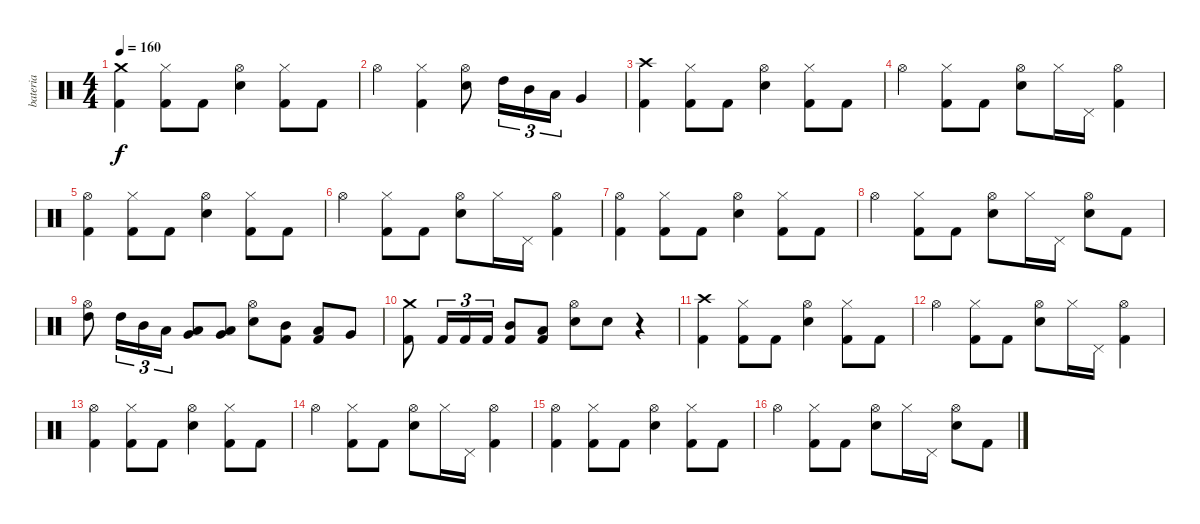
\track ("bateria" "bateria") {instrument percussion}
\staff {score}
\articulation defaults
\ts (4 4)
\tempo 160
\clef neutral
\ks c
("Crash medium (hit)" "Kick (hit) 2").4{dy f} ("Hi-Hat (closed)" "Kick (hit) 2").8 "Kick (hit) 2".8 ("Hi-Hat (open)" "Electric Snare (hit)").4 ("Hi-Hat (closed)" "Kick (hit) 2").8 "Kick (hit) 2".8 |
"Hi-Hat (open)".4 ("Hi-Hat (closed)" "Kick (hit) 2").4 ("Hi-Hat (open)" "Electric Snare (hit)").8 "High Tom (hit)".16{tu (3 2)} "Mid Tom (hit)".16{tu (3 2)} "Low Tom (hit)".16{tu (3 2)} "Very Low Tom (hit)".4 |
("Crash high (hit)" "Kick (hit) 2").4 ("Hi-Hat (closed)" "Kick (hit) 2").8 "Kick (hit) 2".8 ("Hi-Hat (open)" "Electric Snare (hit)").4 ("Hi-Hat (closed)" "Kick (hit) 2").8 "Kick (hit) 2".8 |
"Hi-Hat (open)".4 ("Hi-Hat (closed)" "Kick (hit) 2").8 "Kick (hit) 2".8 ("Hi-Hat (open)" "Electric Snare (hit)").8 "Hi-Hat (closed)".16 "Pedal Hi-Hat (hit)".16 ("Hi-Hat (open)" "Kick (hit) 2").4 |
("Hi-Hat (open)" "Kick (hit) 2").4 ("Hi-Hat (closed)" "Kick (hit) 2").8 "Kick (hit) 2".8 ("Hi-Hat (open)" "Electric Snare (hit)").4 ("Hi-Hat (closed)" "Kick (hit) 2").8 "Kick (hit) 2".8 |
"Hi-Hat (open)".4 ("Hi-Hat (closed)" "Kick (hit) 2").8 "Kick (hit) 2".8 ("Hi-Hat (open)" "Electric Snare (hit)").8 "Hi-Hat (closed)".16 "Pedal Hi-Hat (hit)".16 ("Hi-Hat (open)" "Kick (hit) 2").4 |
("Hi-Hat (open)" "Kick (hit) 2").4 ("Hi-Hat (closed)" "Kick (hit) 2").8 "Kick (hit) 2".8 ("Hi-Hat (open)" "Electric Snare (hit)").4 ("Hi-Hat (closed)" "Kick (hit) 2").8 "Kick (hit) 2".8 |
"Hi-Hat (open)".4 ("Hi-Hat (closed)" "Kick (hit) 2").8 "Kick (hit) 2".8 ("Hi-Hat (open)" "Electric Snare (hit)").8 "Hi-Hat (closed)".16 "Pedal Hi-Hat (hit)".16 ("Hi-Hat (open)" "Electric Snare (hit)").8 "Kick (hit) 2".8 |
("Hi-Hat (open)" "High Tom (hit)").8 "High Tom (hit)".16{tu (3 2)} "Mid Tom (hit)".16{tu (3 2)} "Low Tom (hit)".16{tu (3 2)} ("Low Tom (hit)" "Very Low Tom (hit)").8 ("Low Floor Tom (hit)" "Very Low Tom (hit)").8 ("Hi-Hat (open)" "Electric Snare (hit)").8 ("Mid Tom (hit)" "Kick (hit) 2").8 ("Low Tom (hit)" "Kick (hit) 2").8 "Very Low Tom (hit)".8 |
("Crash medium (hit)" "Kick (hit) 2").8 "Kick (hit) 2".16{tu (3 2)} "Kick (hit) 2".16{tu (3 2)} "Kick (hit) 2".16{tu (3 2)} ("Mid Tom (hit)" "Kick (hit) 2").8 ("Low Tom (hit)" "Kick (hit) 2").8 ("Hi-Hat (open)" "Electric Snare (hit)").8 "Electric Snare (hit)".8 r.4 |
("Crash high (hit)" "Kick (hit) 2").4 ("Hi-Hat (closed)" "Kick (hit) 2").8 "Kick (hit) 2".8 ("Hi-Hat (open)" "Electric Snare (hit)").4 ("Hi-Hat (closed)" "Kick (hit) 2").8 "Kick (hit) 2".8 |
"Hi-Hat (open)".4 ("Hi-Hat (closed)" "Kick (hit) 2").8 "Kick (hit) 2".8 ("Hi-Hat (open)" "Electric Snare (hit)").8 "Hi-Hat (closed)".16 "Pedal Hi-Hat (hit)".16 ("Hi-Hat (open)" "Kick (hit) 2").4 |
("Hi-Hat (open)" "Kick (hit) 2").4 ("Hi-Hat (closed)" "Kick (hit) 2").8 "Kick (hit) 2".8 ("Hi-Hat (open)" "Electric Snare (hit)").4 ("Hi-Hat (closed)" "Kick (hit) 2").8 "Kick (hit) 2".8 |
"Hi-Hat (open)".4 ("Hi-Hat (closed)" "Kick (hit) 2").8 "Kick (hit) 2".8 ("Hi-Hat (open)" "Electric Snare (hit)").8 "Hi-Hat (closed)".16 "Pedal Hi-Hat (hit)".16 ("Hi-Hat (open)" "Kick (hit) 2").4 |
("Hi-Hat (open)" "Kick (hit) 2").4 ("Hi-Hat (closed)" "Kick (hit) 2").8 "Kick (hit) 2".8 ("Hi-Hat (open)" "Electric Snare (hit)").4 ("Hi-Hat (closed)" "Kick (hit) 2").8 "Kick (hit) 2".8 |
"Hi-Hat (open)".4 ("Hi-Hat (closed)" "Kick (hit) 2").8 "Kick (hit) 2".8 ("Hi-Hat (open)" "Electric Snare (hit)").8 "Hi-Hat (closed)".16 "Pedal Hi-Hat (hit)".16 ("Hi-Hat (open)" "Electric Snare (hit)").8 "Kick (hit) 2".8
